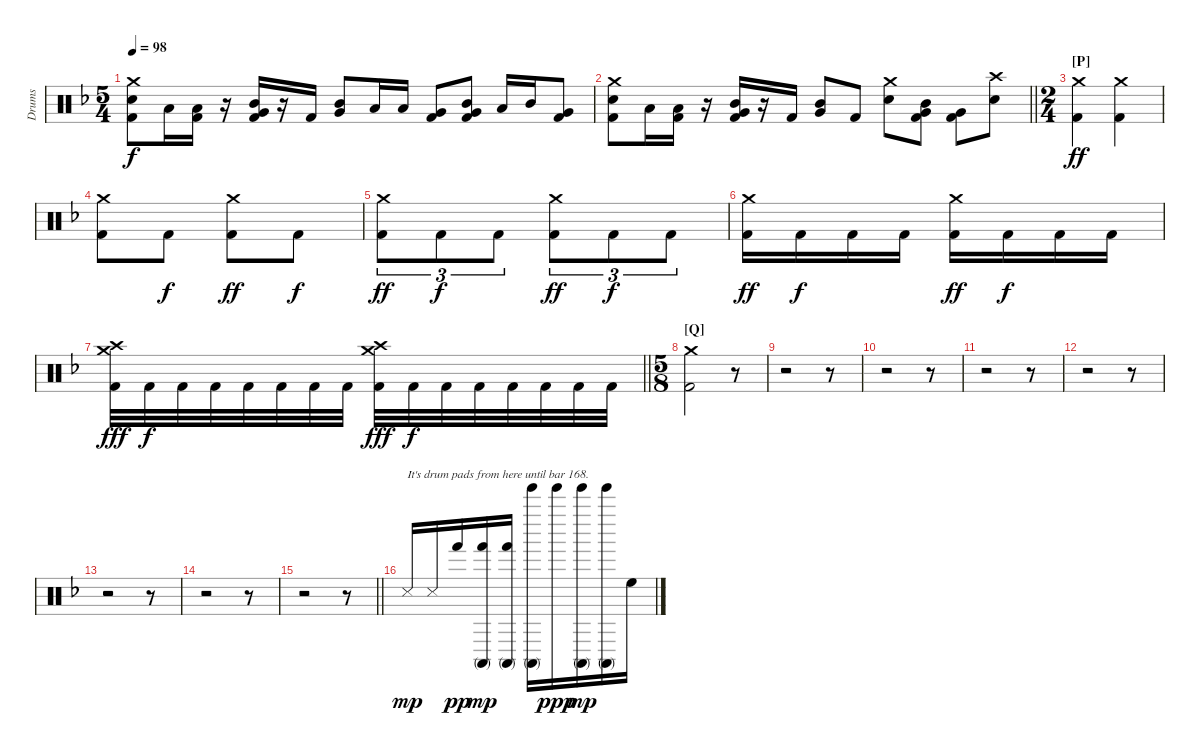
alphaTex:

\track ("Drums" "Drums") {instrument percussion}
\staff {score}
\articulation defaults
\ts (5 4)
\tempo 98
\clef neutral
\ks dminor
("Crash medium (hit)" "Electric Snare (hit)" "Kick (hit) 2").8{dy f} "Low Tom (hit)".16 ("Low Tom (hit)" "Kick (hit) 2").16 r.16 ("Mid Tom (hit)" "Very Low Tom (hit)" "Kick (hit) 2").16 r.16 "Kick (hit) 2".16 ("Mid Tom (hit)" "Very Low Tom (hit)").8 "Low Tom (hit)".16 "Low Tom (hit)".16 ("Very Low Tom (hit)" "Kick (hit) 2").8 ("Mid Tom (hit)" "Very Low Tom (hit)" "Kick (hit) 2").8 "Low Tom (hit)".16 "Mid Tom (hit)".16 ("Very Low Tom (hit)" "Kick (hit) 2").8 |
\barLineRight lightlight
("Crash medium (hit)" "Electric Snare (hit)" "Kick (hit) 2").8 "Low Tom (hit)".16 ("Low Tom (hit)" "Kick (hit) 2").16 r.16 ("Mid Tom (hit)" "Very Low Tom (hit)" "Kick (hit) 2").16 r.16 "Kick (hit) 2".16 ("Mid Tom (hit)" "Very Low Tom (hit)").8 "Kick (hit) 2".8 ("Crash medium (hit)" "Electric Snare (hit)").8 ("Mid Tom (hit)" "Very Low Tom (hit)" "Kick (hit) 2").8{beam split} ("Very Low Tom (hit)" "Kick (hit) 2").8 ("Crash high (hit)" "Electric Snare (hit)").8 |
\ts (2 4)
\section ("" "[P]")
("Crash medium (hit)" "Kick (hit) 2").4{dy ff} ("Crash medium (hit)" "Kick (hit) 2").4 |
("Crash medium (hit)" "Kick (hit) 2").8 "Kick (hit) 2".8{dy f} ("Crash medium (hit)" "Kick (hit) 2").8{dy ff} "Kick (hit) 2".8{dy f} |
("Crash medium (hit)" "Kick (hit) 2").8{tu (3 2) dy ff} "Kick (hit) 2".8{tu (3 2) dy f} "Kick (hit) 2".8{tu (3 2)} ("Crash medium (hit)" "Kick (hit) 2").8{tu (3 2) dy ff} "Kick (hit) 2".8{tu (3 2) dy f} "Kick (hit) 2".8{tu (3 2)} |
("Crash medium (hit)" "Kick (hit) 2").16{dy ff} "Kick (hit) 2".16{dy f} "Kick (hit) 2".16 "Kick (hit) 2".16 ("Crash medium (hit)" "Kick (hit) 2").16{dy ff} "Kick (hit) 2".16{dy f} "Kick (hit) 2".16 "Kick (hit) 2".16 |
\barLineRight lightlight
("Crash medium (hit)" "Crash high (hit)" "Kick (hit) 2").32{dy fff} "Kick (hit) 2".32{dy f} "Kick (hit) 2".32 "Kick (hit) 2".32 "Kick (hit) 2".32 "Kick (hit) 2".32 "Kick (hit) 2".32 "Kick (hit) 2".32 ("Crash medium (hit)" "Crash high (hit)" "Kick (hit) 2").32{dy fff} "Kick (hit) 2".32{dy f} "Kick (hit) 2".32 "Kick (hit) 2".32 "Kick (hit) 2".32 "Kick (hit) 2".32 "Kick (hit) 2".32 "Kick (hit) 2".32 |
\ts (5 8)
\section ("" "[Q]")
("Crash medium (hit)" "Kick (hit) 2").2 r.8 |
r.2 r.8 |
r.2 r.8 |
r.2 r.8 |
r.2 r.8 |
r.2 r.8 |
r.2 r.8 |
\barLineRight lightlight
r.2 r.8 |
"Snare (side stick) 3".16{txt "It's drum pads from here until bar 168." dy mp} "Snare (side stick) 3".16{beam merge} "Hand (hit)".16{dy pp} ("Hand (hit)" "Conga high (mute)").16{dy mp beam merge} ("Hand (hit)" "Conga high (mute)").16{beam split} ("Tinkle Bell (hit)" "Conga high (mute)").16{beam merge} "Tinkle Bell (hit)".16{dy ppp} ("Tinkle Bell (hit)" "Conga high (mute)").16{dy mp beam merge} ("Tinkle Bell (hit)" "Conga high (mute)").16 "High Floor Tom (hit)".16
